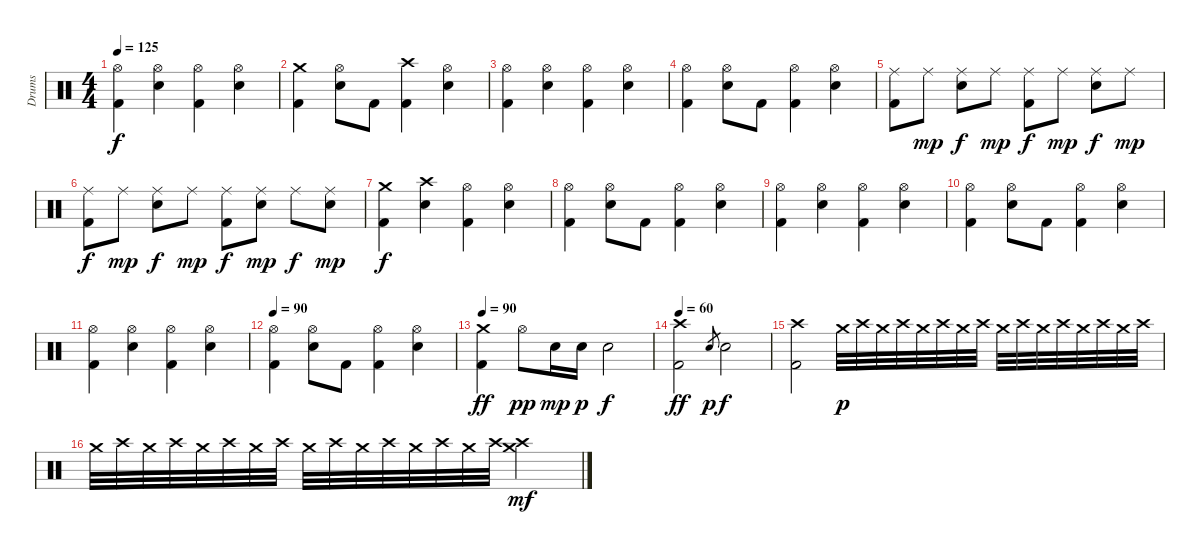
\track ("Drums" "Drums") {instrument percussion}
\staff {score}
\articulation defaults
\ts (4 4)
\tempo 125
\clef neutral
\ks c
("Hi-Hat (open)" "Kick (hit) 2").4{dy f} ("Hi-Hat (open)" "Electric Snare (hit)").4 ("Hi-Hat (open)" "Kick (hit) 2").4 ("Hi-Hat (open)" "Electric Snare (hit)").4 |
("Crash medium (hit)" "Kick (hit) 2").4 ("Hi-Hat (open)" "Electric Snare (hit)").8 "Kick (hit) 2".8 ("Crash high (hit)" "Kick (hit) 2").4 ("Hi-Hat (open)" "Electric Snare (hit)").4 |
("Hi-Hat (open)" "Kick (hit) 2").4 ("Hi-Hat (open)" "Electric Snare (hit)").4 ("Hi-Hat (open)" "Kick (hit) 2").4 ("Hi-Hat (open)" "Electric Snare (hit)").4 |
("Hi-Hat (open)" "Kick (hit) 2").4 ("Hi-Hat (open)" "Electric Snare (hit)").8 "Kick (hit) 2".8 ("Hi-Hat (open)" "Kick (hit) 2").4 ("Hi-Hat (open)" "Electric Snare (hit)").4 |
("Ride (middle)" "Kick (hit) 2").8 "Ride (middle)".8{dy mp} ("Ride (middle)" "Electric Snare (hit)").8{dy f} "Ride (middle)".8{dy mp} ("Ride (middle)" "Kick (hit) 2").8{dy f} "Ride (middle)".8{dy mp} ("Ride (middle)" "Electric Snare (hit)").8{dy f} "Ride (middle)".8{dy mp} |
("Ride (middle)" "Kick (hit) 2").8{dy f} "Ride (middle)".8{dy mp} ("Ride (middle)" "Electric Snare (hit)").8{dy f} "Ride (middle)".8{dy mp} ("Ride (middle)" "Kick (hit) 2").8{dy f} ("Ride (middle)" "Electric Snare (hit)").8{dy mp} "Ride (middle)".8{dy f} ("Ride (middle)" "Electric Snare (hit)").8{dy mp} |
("Crash medium (hit)" "Kick (hit) 2").4{dy f} ("Crash high (hit)" "Electric Snare (hit)").4 ("Hi-Hat (open)" "Kick (hit) 2").4 ("Hi-Hat (open)" "Electric Snare (hit)").4 |
("Hi-Hat (open)" "Kick (hit) 2").4 ("Hi-Hat (open)" "Electric Snare (hit)").8 "Kick (hit) 2".8 ("Hi-Hat (open)" "Kick (hit) 2").4 ("Hi-Hat (open)" "Electric Snare (hit)").4 |
("Hi-Hat (open)" "Kick (hit) 2").4 ("Hi-Hat (open)" "Electric Snare (hit)").4 ("Hi-Hat (open)" "Kick (hit) 2").4 ("Hi-Hat (open)" "Electric Snare (hit)").4 |
("Hi-Hat (open)" "Kick (hit) 2").4 ("Hi-Hat (open)" "Electric Snare (hit)").8 "Kick (hit) 2".8 ("Hi-Hat (open)" "Kick (hit) 2").4 ("Hi-Hat (open)" "Electric Snare (hit)").4 |
("Hi-Hat (open)" "Kick (hit) 2").4 ("Hi-Hat (open)" "Electric Snare (hit)").4 ("Hi-Hat (open)" "Kick (hit) 2").4 ("Hi-Hat (open)" "Electric Snare (hit)").4 |
\tempo 90
("Hi-Hat (open)" "Kick (hit) 2").4 ("Hi-Hat (open)" "Electric Snare (hit)").8 "Kick (hit) 2".8 ("Hi-Hat (open)" "Kick (hit) 2").4 ("Hi-Hat (open)" "Electric Snare (hit)").4 |
\tempo 90
("Crash medium (hit)" "Kick (hit) 2").4{dy ff} "Hi-Hat (open)".8{dy pp} "Electric Snare (hit)".16{dy mp} "Electric Snare (hit)".16{dy p} "Electric Snare (hit)".2{dy f} |
\tempo 60
("Crash high (hit)" "Kick (hit) 2").2{dy ff} "Electric Snare (hit)".8{gr dy p} "Electric Snare (hit)".2{dy f} |
("Crash high (hit)" "Kick (hit) 2").2 "Crash medium (hit)".32{dy p} "Crash high (hit)".32 "Crash medium (hit)".32 "Crash high (hit)".32 "Crash medium (hit)".32 "Crash high (hit)".32 "Crash medium (hit)".32 "Crash high (hit)".32 "Crash medium (hit)".32 "Crash high (hit)".32 "Crash medium (hit)".32 "Crash high (hit)".32 "Crash medium (hit)".32 "Crash high (hit)".32 "Crash medium (hit)".32 "Crash high (hit)".32 |
"Crash medium (hit)".32 "Crash high (hit)".32 "Crash medium (hit)".32 "Crash high (hit)".32 "Crash medium (hit)".32 "Crash high (hit)".32 "Crash medium (hit)".32 "Crash high (hit)".32 "Crash medium (hit)".32 "Crash high (hit)".32 "Crash medium (hit)".32 "Crash high (hit)".32 "Crash medium (hit)".32 "Crash high (hit)".32 "Crash medium (hit)".32 "Crash high (hit)".32 ("Crash medium (hit)" "Crash high (hit)").2{dy mf}
